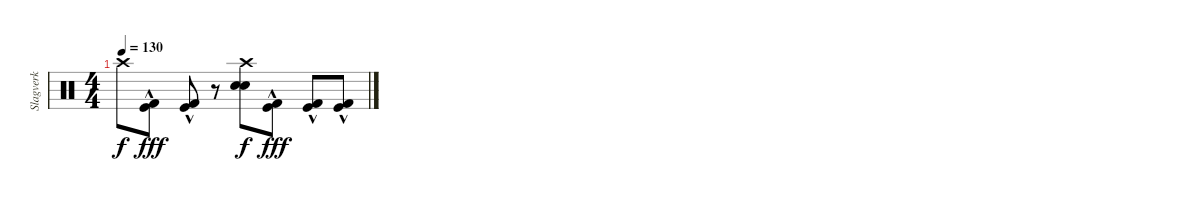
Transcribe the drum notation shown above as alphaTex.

\track ("Slagverk" "Slagverk") {instrument percussion}
\staff {score}
\articulation defaults
\ts (4 4)
\tempo 130
\clef neutral
\ks c "Crash high (hit)".8{dy f volume 1}
("Kick (hit)"{hac} "Kick (hit) 2"{hac}).8{dy fff} ("Kick (hit)"{hac} "Kick (hit) 2"{hac}).8 r.8 ("Crash high (hit)" "Electric Snare (hit)" "Snare (hit) 2").8{dy f} ("Kick (hit)"{hac} "Kick (hit) 2"{hac}).8{dy fff} ("Kick (hit)"{hac} "Kick (hit) 2"{hac}).8 ("Kick (hit)"{hac} "Kick (hit) 2"{hac}).8
